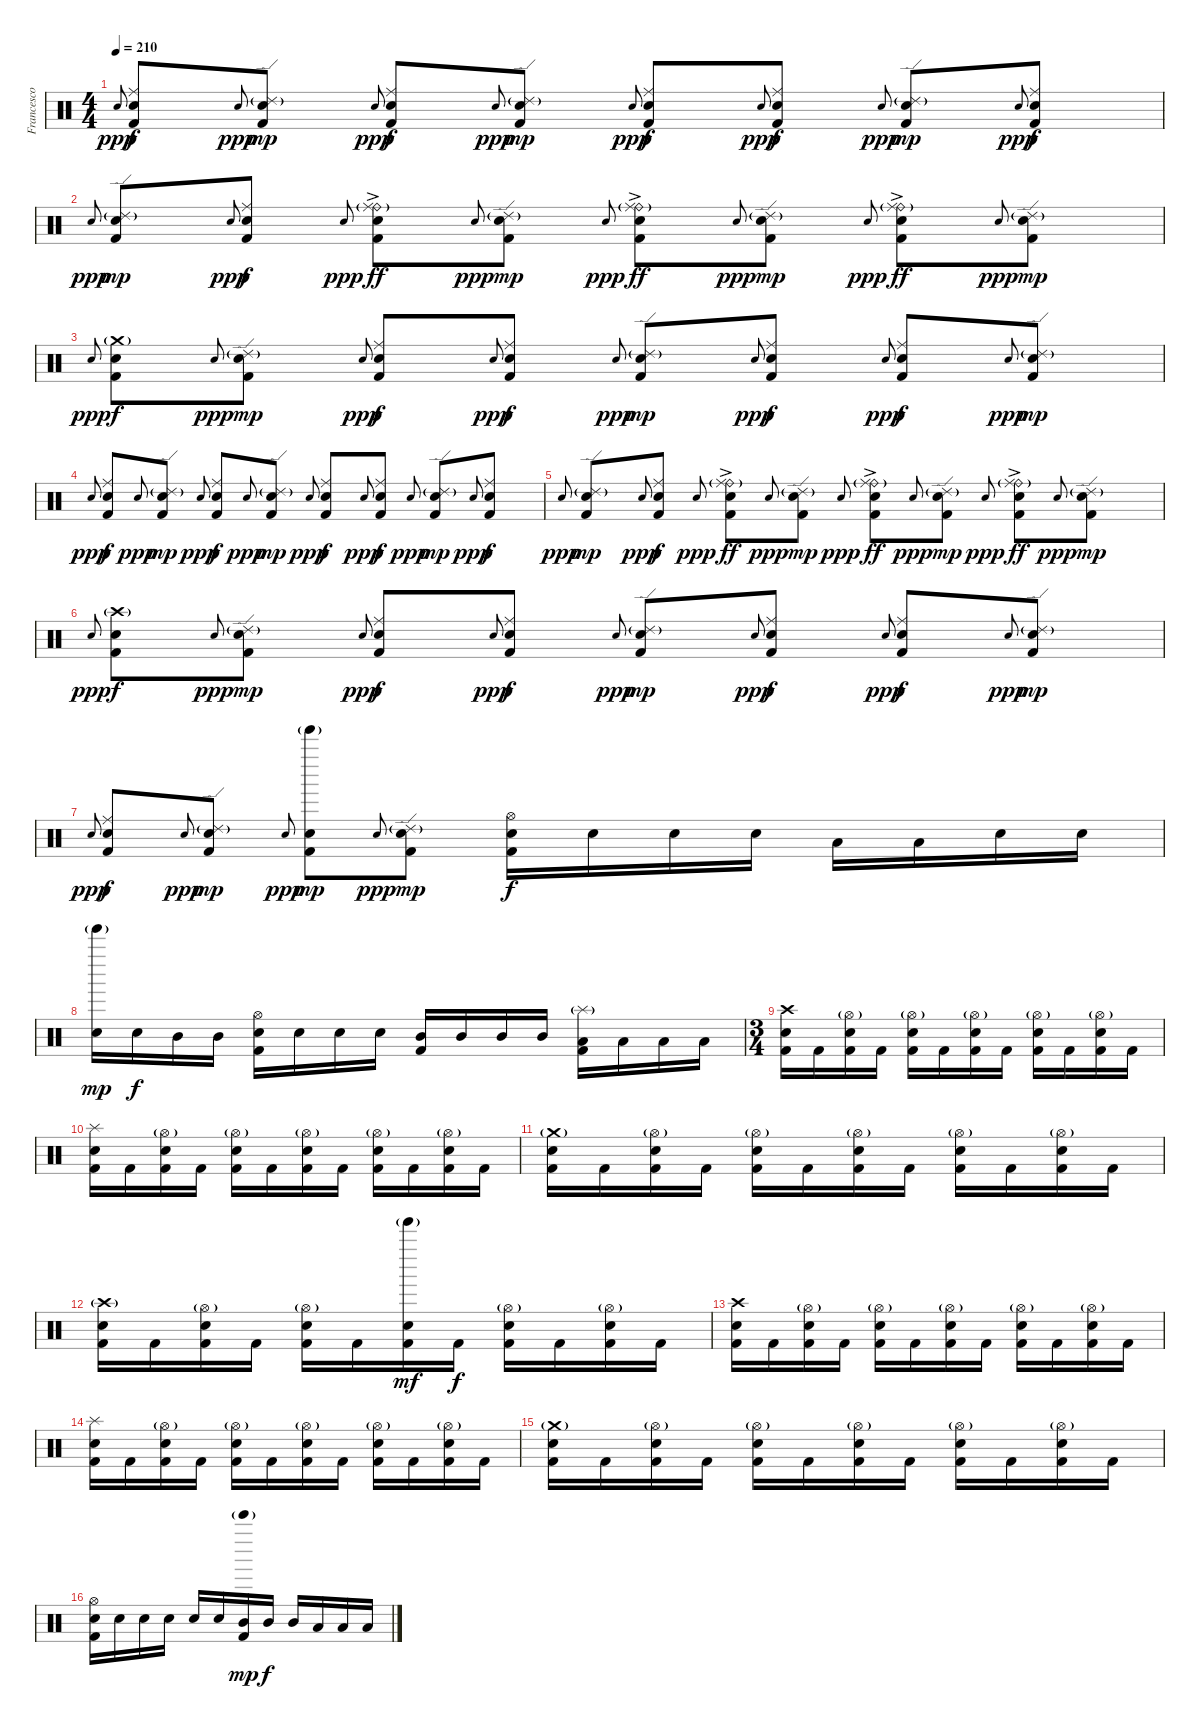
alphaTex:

\track ("Francesco Ferrini" "Francesco ") {instrument percussion}
\staff {score}
\articulation defaults
\ts (4 4)
\tempo 210
\clef neutral
\ks c "Electric Snare (hit)"{h}.8{gr onbeat dy ppp}
("Ride (middle)" "Electric Snare (hit)" "Kick (hit) 2").8{dy f} "Electric Snare (hit)"{h}.8{gr onbeat dy ppp} ("Ride (edge) 2"{g} "Electric Snare (hit)" "Kick (hit) 2").8{dy mp} "Electric Snare (hit)"{h}.8{gr onbeat dy ppp} ("Ride (middle)" "Electric Snare (hit)" "Kick (hit) 2").8{dy f} "Electric Snare (hit)"{h}.8{gr onbeat dy ppp} ("Ride (edge) 2"{g} "Electric Snare (hit)" "Kick (hit) 2").8{dy mp} "Electric Snare (hit)"{h}.8{gr onbeat dy ppp} ("Ride (middle)" "Electric Snare (hit)" "Kick (hit) 2").8{dy f} "Electric Snare (hit)"{h}.8{gr onbeat dy ppp} ("Ride (middle)" "Electric Snare (hit)" "Kick (hit) 2").8{dy f} "Electric Snare (hit)"{h}.8{gr onbeat dy ppp} ("Ride (edge) 2"{g} "Electric Snare (hit)" "Kick (hit) 2").8{dy mp} "Electric Snare (hit)"{h}.8{gr onbeat dy ppp} ("Ride (middle)" "Electric Snare (hit)" "Kick (hit) 2").8{dy f} |
"Electric Snare (hit)"{h}.8{gr onbeat dy ppp} ("Ride (edge) 2"{g} "Electric Snare (hit)" "Kick (hit) 2").8{dy mp} "Electric Snare (hit)"{h}.8{gr onbeat dy ppp} ("Ride (middle)" "Electric Snare (hit)" "Kick (hit) 2").8{dy f} "Electric Snare (hit)"{h}.8{gr onbeat dy ppp} ("Ride (bell)"{g} "Ride (middle)"{ac} "Electric Snare (hit)" "Kick (hit) 2").8{dy ff} "Electric Snare (hit)"{h}.8{gr onbeat dy ppp} ("Ride (edge) 2"{g} "Electric Snare (hit)" "Kick (hit) 2").8{dy mp} "Electric Snare (hit)"{h}.8{gr onbeat dy ppp} ("Ride (bell)"{g} "Ride (middle)"{ac} "Electric Snare (hit)" "Kick (hit) 2").8{dy ff} "Electric Snare (hit)"{h}.8{gr onbeat dy ppp} ("Ride (edge) 2"{g} "Electric Snare (hit)" "Kick (hit) 2").8{dy mp} "Electric Snare (hit)"{h}.8{gr onbeat dy ppp} ("Ride (bell)"{g} "Ride (middle)"{ac} "Electric Snare (hit)" "Kick (hit) 2").8{dy ff} "Electric Snare (hit)"{h}.8{gr onbeat dy ppp} ("Ride (edge) 2"{g} "Electric Snare (hit)" "Kick (hit) 2").8{dy mp} |
"Electric Snare (hit)"{h}.8{gr onbeat dy ppp} ("Crash medium (hit)"{g} "Electric Snare (hit)" "Kick (hit) 2").8{dy f} "Electric Snare (hit)"{h}.8{gr onbeat dy ppp} ("Ride (edge) 2"{g} "Electric Snare (hit)" "Kick (hit) 2").8{dy mp} "Electric Snare (hit)"{h}.8{gr onbeat dy ppp} ("Ride (middle)" "Electric Snare (hit)" "Kick (hit) 2").8{dy f} "Electric Snare (hit)"{h}.8{gr onbeat dy ppp} ("Ride (middle)" "Electric Snare (hit)" "Kick (hit) 2").8{dy f} "Electric Snare (hit)"{h}.8{gr onbeat dy ppp} ("Ride (edge) 2"{g} "Electric Snare (hit)" "Kick (hit) 2").8{dy mp} "Electric Snare (hit)"{h}.8{gr onbeat dy ppp} ("Ride (middle)" "Electric Snare (hit)" "Kick (hit) 2").8{dy f} "Electric Snare (hit)"{h}.8{gr onbeat dy ppp} ("Ride (middle)" "Electric Snare (hit)" "Kick (hit) 2").8{dy f} "Electric Snare (hit)"{h}.8{gr onbeat dy ppp} ("Ride (edge) 2"{g} "Electric Snare (hit)" "Kick (hit) 2").8{dy mp} |
"Electric Snare (hit)"{h}.8{gr onbeat dy ppp} ("Ride (middle)" "Electric Snare (hit)" "Kick (hit) 2").8{dy f} "Electric Snare (hit)"{h}.8{gr onbeat dy ppp} ("Ride (edge) 2"{g} "Electric Snare (hit)" "Kick (hit) 2").8{dy mp} "Electric Snare (hit)"{h}.8{gr onbeat dy ppp} ("Ride (middle)" "Electric Snare (hit)" "Kick (hit) 2").8{dy f} "Electric Snare (hit)"{h}.8{gr onbeat dy ppp} ("Ride (edge) 2"{g} "Electric Snare (hit)" "Kick (hit) 2").8{dy mp} "Electric Snare (hit)"{h}.8{gr onbeat dy ppp} ("Ride (middle)" "Electric Snare (hit)" "Kick (hit) 2").8{dy f} "Electric Snare (hit)"{h}.8{gr onbeat dy ppp} ("Ride (middle)" "Electric Snare (hit)" "Kick (hit) 2").8{dy f} "Electric Snare (hit)"{h}.8{gr onbeat dy ppp} ("Ride (edge) 2"{g} "Electric Snare (hit)" "Kick (hit) 2").8{dy mp} "Electric Snare (hit)"{h}.8{gr onbeat dy ppp} ("Ride (middle)" "Electric Snare (hit)" "Kick (hit) 2").8{dy f} |
"Electric Snare (hit)"{h}.8{gr onbeat dy ppp} ("Ride (edge) 2"{g} "Electric Snare (hit)" "Kick (hit) 2").8{dy mp} "Electric Snare (hit)"{h}.8{gr onbeat dy ppp} ("Ride (middle)" "Electric Snare (hit)" "Kick (hit) 2").8{dy f} "Electric Snare (hit)"{h}.8{gr onbeat dy ppp} ("Ride (bell)"{g} "Ride (middle)"{ac} "Electric Snare (hit)" "Kick (hit) 2").8{dy ff} "Electric Snare (hit)"{h}.8{gr onbeat dy ppp} ("Ride (edge) 2"{g} "Electric Snare (hit)" "Kick (hit) 2").8{dy mp} "Electric Snare (hit)"{h}.8{gr onbeat dy ppp} ("Ride (bell)"{g} "Ride (middle)"{ac} "Electric Snare (hit)" "Kick (hit) 2").8{dy ff} "Electric Snare (hit)"{h}.8{gr onbeat dy ppp} ("Ride (edge) 2"{g} "Electric Snare (hit)" "Kick (hit) 2").8{dy mp} "Electric Snare (hit)"{h}.8{gr onbeat dy ppp} ("Ride (bell)"{g} "Ride (middle)"{ac} "Electric Snare (hit)" "Kick (hit) 2").8{dy ff} "Electric Snare (hit)"{h}.8{gr onbeat dy ppp} ("Ride (edge) 2"{g} "Electric Snare (hit)" "Kick (hit) 2").8{dy mp} |
"Electric Snare (hit)"{h}.8{gr onbeat dy ppp} ("Crash high (hit)"{g} "Electric Snare (hit)" "Kick (hit) 2").8{dy f} "Electric Snare (hit)"{h}.8{gr onbeat dy ppp} ("Ride (edge) 2"{g} "Electric Snare (hit)" "Kick (hit) 2").8{dy mp} "Electric Snare (hit)"{h}.8{gr onbeat dy ppp} ("Ride (middle)" "Electric Snare (hit)" "Kick (hit) 2").8{dy f} "Electric Snare (hit)"{h}.8{gr onbeat dy ppp} ("Ride (middle)" "Electric Snare (hit)" "Kick (hit) 2").8{dy f} "Electric Snare (hit)"{h}.8{gr onbeat dy ppp} ("Ride (edge) 2"{g} "Electric Snare (hit)" "Kick (hit) 2").8{dy mp} "Electric Snare (hit)"{h}.8{gr onbeat dy ppp} ("Ride (middle)" "Electric Snare (hit)" "Kick (hit) 2").8{dy f} "Electric Snare (hit)"{h}.8{gr onbeat dy ppp} ("Ride (middle)" "Electric Snare (hit)" "Kick (hit) 2").8{dy f} "Electric Snare (hit)"{h}.8{gr onbeat dy ppp} ("Ride (edge) 2"{g} "Electric Snare (hit)" "Kick (hit) 2").8{dy mp} |
"Electric Snare (hit)"{h}.8{gr onbeat dy ppp} ("Ride (middle)" "Electric Snare (hit)" "Kick (hit) 2").8{dy f} "Electric Snare (hit)"{h}.8{gr onbeat dy ppp} ("Ride (edge) 2"{g} "Electric Snare (hit)" "Kick (hit) 2").8{dy mp} "Electric Snare (hit)"{h}.8{gr onbeat dy ppp} ("Tinkle Bell (hit)"{g} "Electric Snare (hit)" "Kick (hit) 2").8{dy mp} "Electric Snare (hit)"{h}.8{gr onbeat dy ppp} ("Ride (edge) 2"{g} "Electric Snare (hit)" "Kick (hit) 2").8{dy mp} ("Hi-Hat (open)" "Electric Snare (hit)" "Kick (hit) 2").16{dy f} "Electric Snare (hit)".16 "Electric Snare (hit)".16 "Electric Snare (hit)".16 "Low Tom (hit)".16 "Low Tom (hit)".16 "Electric Snare (hit)".16 "Electric Snare (hit)".16 |
("Tinkle Bell (hit)"{g} "Electric Snare (hit)").16{dy mp} "Electric Snare (hit)".16{dy f} "Mid Tom (hit)".16 "Mid Tom (hit)".16 ("Hi-Hat (open)" "Electric Snare (hit)" "Kick (hit) 2").16 "Electric Snare (hit)".16 "Electric Snare (hit)".16 "Electric Snare (hit)".16 ("Mid Tom (hit)" "Kick (hit) 2").16 "Mid Tom (hit)".16 "Mid Tom (hit)".16 "Mid Tom (hit)".16 ("Splash (hit)"{g} "Low Tom (hit)" "Kick (hit) 2").16 "Low Tom (hit)".16 "Low Tom (hit)".16 "Low Tom (hit)".16 |
\ts (3 4)
("Crash high (hit)" "Electric Snare (hit)" "Kick (hit) 2").16 "Kick (hit) 2".16 ("Hi-Hat (open)"{g} "Electric Snare (hit)" "Kick (hit) 2").16 "Kick (hit) 2".16 ("Hi-Hat (open)"{g} "Electric Snare (hit)" "Kick (hit) 2").16 "Kick (hit) 2".16 ("Hi-Hat (open)"{g} "Electric Snare (hit)" "Kick (hit) 2").16 "Kick (hit) 2".16 ("Hi-Hat (open)"{g} "Electric Snare (hit)" "Kick (hit) 2").16 "Kick (hit) 2".16 ("Hi-Hat (open)"{g} "Electric Snare (hit)" "Kick (hit) 2").16 "Kick (hit) 2".16 |
("Splash (hit)" "Electric Snare (hit)" "Kick (hit) 2").16 "Kick (hit) 2".16 ("Hi-Hat (open)"{g} "Electric Snare (hit)" "Kick (hit) 2").16 "Kick (hit) 2".16 ("Hi-Hat (open)"{g} "Electric Snare (hit)" "Kick (hit) 2").16 "Kick (hit) 2".16 ("Hi-Hat (open)"{g} "Electric Snare (hit)" "Kick (hit) 2").16 "Kick (hit) 2".16 ("Hi-Hat (open)"{g} "Electric Snare (hit)" "Kick (hit) 2").16 "Kick (hit) 2".16 ("Hi-Hat (open)"{g} "Electric Snare (hit)" "Kick (hit) 2").16 "Kick (hit) 2".16 |
("Crash medium (hit)"{g} "Electric Snare (hit)" "Kick (hit) 2").16 "Kick (hit) 2".16 ("Hi-Hat (open)"{g} "Electric Snare (hit)" "Kick (hit) 2").16 "Kick (hit) 2".16 ("Hi-Hat (open)"{g} "Electric Snare (hit)" "Kick (hit) 2").16 "Kick (hit) 2".16 ("Hi-Hat (open)"{g} "Electric Snare (hit)" "Kick (hit) 2").16 "Kick (hit) 2".16 ("Hi-Hat (open)"{g} "Electric Snare (hit)" "Kick (hit) 2").16 "Kick (hit) 2".16 ("Hi-Hat (open)"{g} "Electric Snare (hit)" "Kick (hit) 2").16 "Kick (hit) 2".16 |
("Crash high (hit)"{g} "Electric Snare (hit)" "Kick (hit) 2").16 "Kick (hit) 2".16 ("Hi-Hat (open)"{g} "Electric Snare (hit)" "Kick (hit) 2").16 "Kick (hit) 2".16 ("Hi-Hat (open)"{g} "Electric Snare (hit)" "Kick (hit) 2").16 "Kick (hit) 2".16 ("Tinkle Bell (hit)"{g} "Electric Snare (hit)" "Kick (hit) 2").16{dy mf} "Kick (hit) 2".16{dy f} ("Hi-Hat (open)"{g} "Electric Snare (hit)" "Kick (hit) 2").16 "Kick (hit) 2".16 ("Hi-Hat (open)"{g} "Electric Snare (hit)" "Kick (hit) 2").16 "Kick (hit) 2".16 |
("Crash high (hit)" "Electric Snare (hit)" "Kick (hit) 2").16 "Kick (hit) 2".16 ("Hi-Hat (open)"{g} "Electric Snare (hit)" "Kick (hit) 2").16 "Kick (hit) 2".16 ("Hi-Hat (open)"{g} "Electric Snare (hit)" "Kick (hit) 2").16 "Kick (hit) 2".16 ("Hi-Hat (open)"{g} "Electric Snare (hit)" "Kick (hit) 2").16 "Kick (hit) 2".16 ("Hi-Hat (open)"{g} "Electric Snare (hit)" "Kick (hit) 2").16 "Kick (hit) 2".16 ("Hi-Hat (open)"{g} "Electric Snare (hit)" "Kick (hit) 2").16 "Kick (hit) 2".16 |
("Splash (hit)" "Electric Snare (hit)" "Kick (hit) 2").16 "Kick (hit) 2".16 ("Hi-Hat (open)"{g} "Electric Snare (hit)" "Kick (hit) 2").16 "Kick (hit) 2".16 ("Hi-Hat (open)"{g} "Electric Snare (hit)" "Kick (hit) 2").16 "Kick (hit) 2".16 ("Hi-Hat (open)"{g} "Electric Snare (hit)" "Kick (hit) 2").16 "Kick (hit) 2".16 ("Hi-Hat (open)"{g} "Electric Snare (hit)" "Kick (hit) 2").16 "Kick (hit) 2".16 ("Hi-Hat (open)"{g} "Electric Snare (hit)" "Kick (hit) 2").16 "Kick (hit) 2".16 |
("Crash medium (hit)"{g} "Electric Snare (hit)" "Kick (hit) 2").16 "Kick (hit) 2".16 ("Hi-Hat (open)"{g} "Electric Snare (hit)" "Kick (hit) 2").16 "Kick (hit) 2".16 ("Hi-Hat (open)"{g} "Electric Snare (hit)" "Kick (hit) 2").16 "Kick (hit) 2".16 ("Hi-Hat (open)"{g} "Electric Snare (hit)" "Kick (hit) 2").16 "Kick (hit) 2".16 ("Hi-Hat (open)"{g} "Electric Snare (hit)" "Kick (hit) 2").16 "Kick (hit) 2".16 ("Hi-Hat (open)"{g} "Electric Snare (hit)" "Kick (hit) 2").16 "Kick (hit) 2".16 |
("Hi-Hat (open)" "Electric Snare (hit)" "Kick (hit) 2").16 "Electric Snare (hit)".16 "Electric Snare (hit)".16 "Electric Snare (hit)".16 "Electric Snare (hit)".16 "Electric Snare (hit)".16 ("Tinkle Bell (hit)"{g} "Mid Tom (hit)" "Kick (hit) 2").16{dy mp} "Mid Tom (hit)".16{dy f} "Mid Tom (hit)".16 "Low Tom (hit)".16 "Low Tom (hit)".16 "Low Tom (hit)".16
